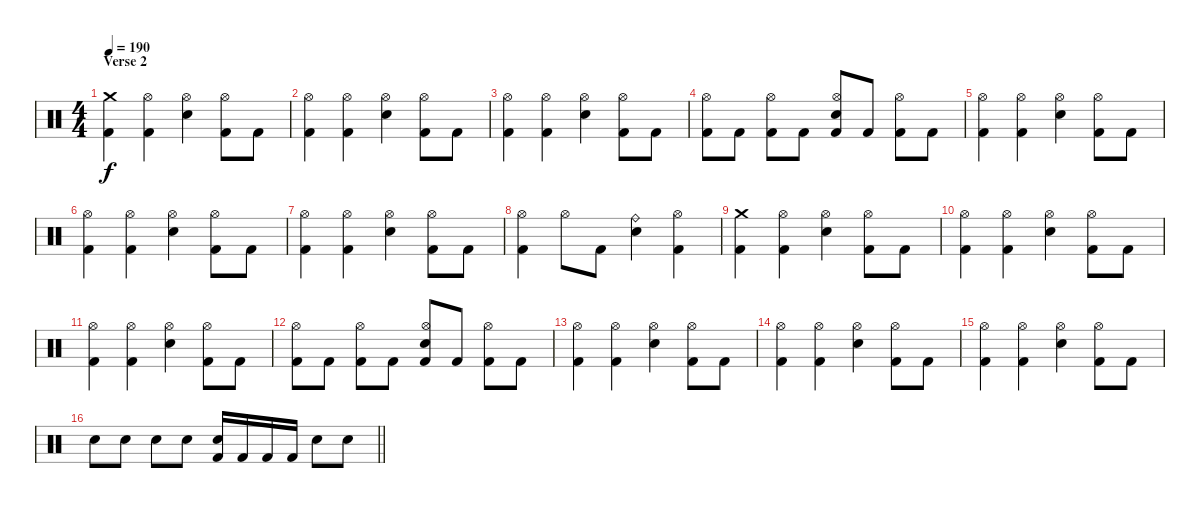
\track "" {instrument percussion}
\staff {score}
\articulation defaults
\ts (4 4)
\section ("" "Verse 2")
\tempo 190
\clef neutral
\ks c
("Crash medium (hit)" "Kick (hit) 2").4{dy f volume 16} ("Hi-Hat (open)" "Kick (hit) 2").4 ("Hi-Hat (open)" "Electric Snare (hit)").4 ("Hi-Hat (open)" "Kick (hit) 2").8 "Kick (hit) 2".8 |
("Hi-Hat (open)" "Kick (hit) 2").4 ("Hi-Hat (open)" "Kick (hit) 2").4 ("Hi-Hat (open)" "Electric Snare (hit)").4 ("Hi-Hat (open)" "Kick (hit) 2").8 "Kick (hit) 2".8 |
("Hi-Hat (open)" "Kick (hit) 2").4 ("Hi-Hat (open)" "Kick (hit) 2").4 ("Hi-Hat (open)" "Electric Snare (hit)").4 ("Hi-Hat (open)" "Kick (hit) 2").8 "Kick (hit) 2".8 |
("Hi-Hat (open)" "Kick (hit) 2").8 "Kick (hit) 2".8 ("Hi-Hat (open)" "Kick (hit) 2").8 "Kick (hit) 2".8 ("Hi-Hat (open)" "Electric Snare (hit)" "Kick (hit) 2").8 "Kick (hit) 2".8 ("Hi-Hat (open)" "Kick (hit) 2").8 "Kick (hit) 2".8 |
("Hi-Hat (open)" "Kick (hit) 2").4 ("Hi-Hat (open)" "Kick (hit) 2").4 ("Hi-Hat (open)" "Electric Snare (hit)").4 ("Hi-Hat (open)" "Kick (hit) 2").8 "Kick (hit) 2".8 |
("Hi-Hat (open)" "Kick (hit) 2").4 ("Hi-Hat (open)" "Kick (hit) 2").4 ("Hi-Hat (open)" "Electric Snare (hit)").4 ("Hi-Hat (open)" "Kick (hit) 2").8 "Kick (hit) 2".8 |
("Hi-Hat (open)" "Kick (hit) 2").4 ("Hi-Hat (open)" "Kick (hit) 2").4 ("Hi-Hat (open)" "Electric Snare (hit)").4 ("Hi-Hat (open)" "Kick (hit) 2").8 "Kick (hit) 2".8 |
("Hi-Hat (open)" "Kick (hit) 2").4 "Hi-Hat (open)".8 "Kick (hit) 2".8 ("Ride (bell)" "Electric Snare (hit)").4 ("Hi-Hat (open)" "Kick (hit) 2").4 |
("Crash medium (hit)" "Kick (hit) 2").4 ("Hi-Hat (open)" "Kick (hit) 2").4 ("Hi-Hat (open)" "Electric Snare (hit)").4 ("Hi-Hat (open)" "Kick (hit) 2").8 "Kick (hit) 2".8 |
("Hi-Hat (open)" "Kick (hit) 2").4 ("Hi-Hat (open)" "Kick (hit) 2").4 ("Hi-Hat (open)" "Electric Snare (hit)").4 ("Hi-Hat (open)" "Kick (hit) 2").8 "Kick (hit) 2".8 |
("Hi-Hat (open)" "Kick (hit) 2").4 ("Hi-Hat (open)" "Kick (hit) 2").4 ("Hi-Hat (open)" "Electric Snare (hit)").4 ("Hi-Hat (open)" "Kick (hit) 2").8 "Kick (hit) 2".8 |
("Hi-Hat (open)" "Kick (hit) 2").8 "Kick (hit) 2".8 ("Hi-Hat (open)" "Kick (hit) 2").8 "Kick (hit) 2".8 ("Hi-Hat (open)" "Electric Snare (hit)" "Kick (hit) 2").8 "Kick (hit) 2".8 ("Hi-Hat (open)" "Kick (hit) 2").8 "Kick (hit) 2".8 |
("Hi-Hat (open)" "Kick (hit) 2").4 ("Hi-Hat (open)" "Kick (hit) 2").4 ("Hi-Hat (open)" "Electric Snare (hit)").4 ("Hi-Hat (open)" "Kick (hit) 2").8 "Kick (hit) 2".8 |
("Hi-Hat (open)" "Kick (hit) 2").4 ("Hi-Hat (open)" "Kick (hit) 2").4 ("Hi-Hat (open)" "Electric Snare (hit)").4 ("Hi-Hat (open)" "Kick (hit) 2").8 "Kick (hit) 2".8 |
("Hi-Hat (open)" "Kick (hit) 2").4 ("Hi-Hat (open)" "Kick (hit) 2").4 ("Hi-Hat (open)" "Electric Snare (hit)").4 ("Hi-Hat (open)" "Kick (hit) 2").8 "Kick (hit) 2".8 |
\barLineRight lightlight "Electric Snare (hit)".8 "Electric Snare (hit)".8 "Electric Snare (hit)".8 "Electric Snare (hit)".8
("Electric Snare (hit)" "Kick (hit) 2").16 "Kick (hit) 2".16 "Kick (hit) 2".16 "Kick (hit) 2".16 "Electric Snare (hit)".8 "Electric Snare (hit)".8
